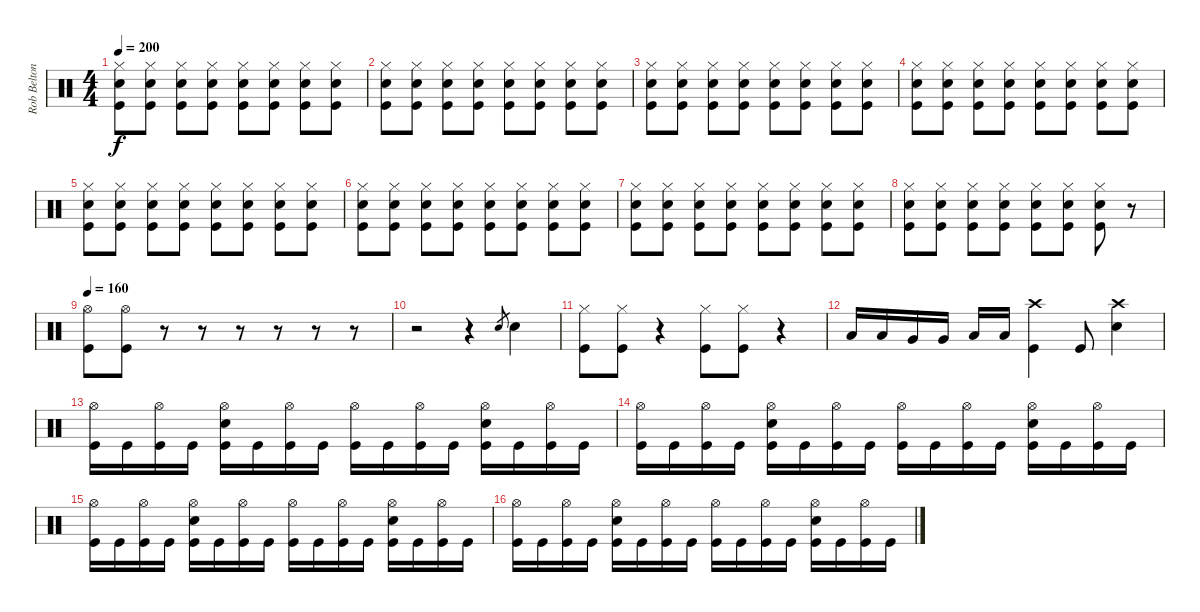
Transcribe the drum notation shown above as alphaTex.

\track ("Rob Belton" "Rob Belton") {instrument percussion}
\staff {score}
\articulation defaults
\ts (4 4)
\tempo 200
\clef neutral
\ks c
("Kick (hit)" "Snare (hit) 2" "Hi-Hat (closed)").8{dy f} ("Kick (hit)" "Snare (hit) 2" "Hi-Hat (closed)").8 ("Kick (hit)" "Snare (hit) 2" "Hi-Hat (closed)").8 ("Kick (hit)" "Snare (hit) 2" "Hi-Hat (closed)").8 ("Kick (hit)" "Snare (hit) 2" "Hi-Hat (closed)").8 ("Kick (hit)" "Snare (hit) 2" "Hi-Hat (closed)").8 ("Kick (hit)" "Snare (hit) 2" "Hi-Hat (closed)").8 ("Kick (hit)" "Snare (hit) 2" "Hi-Hat (closed)").8 |
("Kick (hit)" "Snare (hit) 2" "Hi-Hat (closed)").8 ("Kick (hit)" "Snare (hit) 2" "Hi-Hat (closed)").8 ("Kick (hit)" "Snare (hit) 2" "Hi-Hat (closed)").8 ("Kick (hit)" "Snare (hit) 2" "Hi-Hat (closed)").8 ("Kick (hit)" "Snare (hit) 2" "Hi-Hat (closed)").8 ("Kick (hit)" "Snare (hit) 2" "Hi-Hat (closed)").8 ("Kick (hit)" "Snare (hit) 2" "Hi-Hat (closed)").8 ("Kick (hit)" "Snare (hit) 2" "Hi-Hat (closed)").8 |
("Kick (hit)" "Snare (hit) 2" "Hi-Hat (closed)").8 ("Kick (hit)" "Snare (hit) 2" "Hi-Hat (closed)").8 ("Kick (hit)" "Snare (hit) 2" "Hi-Hat (closed)").8 ("Kick (hit)" "Snare (hit) 2" "Hi-Hat (closed)").8 ("Kick (hit)" "Snare (hit) 2" "Hi-Hat (closed)").8 ("Kick (hit)" "Snare (hit) 2" "Hi-Hat (closed)").8 ("Kick (hit)" "Snare (hit) 2" "Hi-Hat (closed)").8 ("Kick (hit)" "Snare (hit) 2" "Hi-Hat (closed)").8 |
("Kick (hit)" "Snare (hit) 2" "Hi-Hat (closed)").8 ("Kick (hit)" "Snare (hit) 2" "Hi-Hat (closed)").8 ("Kick (hit)" "Snare (hit) 2" "Hi-Hat (closed)").8 ("Kick (hit)" "Snare (hit) 2" "Hi-Hat (closed)").8 ("Kick (hit)" "Snare (hit) 2" "Hi-Hat (closed)").8 ("Kick (hit)" "Snare (hit) 2" "Hi-Hat (closed)").8 ("Kick (hit)" "Snare (hit) 2" "Hi-Hat (closed)").8 ("Kick (hit)" "Snare (hit) 2" "Hi-Hat (closed)").8 |
("Kick (hit)" "Snare (hit) 2" "Hi-Hat (closed)").8 ("Kick (hit)" "Snare (hit) 2" "Hi-Hat (closed)").8 ("Kick (hit)" "Snare (hit) 2" "Hi-Hat (closed)").8 ("Kick (hit)" "Snare (hit) 2" "Hi-Hat (closed)").8 ("Kick (hit)" "Snare (hit) 2" "Hi-Hat (closed)").8 ("Kick (hit)" "Snare (hit) 2" "Hi-Hat (closed)").8 ("Kick (hit)" "Snare (hit) 2" "Hi-Hat (closed)").8 ("Kick (hit)" "Snare (hit) 2" "Hi-Hat (closed)").8 |
("Kick (hit)" "Snare (hit) 2" "Hi-Hat (closed)").8 ("Kick (hit)" "Snare (hit) 2" "Hi-Hat (closed)").8 ("Kick (hit)" "Snare (hit) 2" "Hi-Hat (closed)").8 ("Kick (hit)" "Snare (hit) 2" "Hi-Hat (closed)").8 ("Kick (hit)" "Snare (hit) 2" "Hi-Hat (closed)").8 ("Kick (hit)" "Snare (hit) 2" "Hi-Hat (closed)").8 ("Kick (hit)" "Snare (hit) 2" "Hi-Hat (closed)").8 ("Kick (hit)" "Snare (hit) 2" "Hi-Hat (closed)").8 |
("Kick (hit)" "Snare (hit) 2" "Hi-Hat (closed)").8 ("Kick (hit)" "Snare (hit) 2" "Hi-Hat (closed)").8 ("Kick (hit)" "Snare (hit) 2" "Hi-Hat (closed)").8 ("Kick (hit)" "Snare (hit) 2" "Hi-Hat (closed)").8 ("Kick (hit)" "Snare (hit) 2" "Hi-Hat (closed)").8 ("Kick (hit)" "Snare (hit) 2" "Hi-Hat (closed)").8 ("Kick (hit)" "Snare (hit) 2" "Hi-Hat (closed)").8 ("Kick (hit)" "Snare (hit) 2" "Hi-Hat (closed)").8 |
("Kick (hit)" "Snare (hit) 2" "Hi-Hat (closed)").8 ("Kick (hit)" "Snare (hit) 2" "Hi-Hat (closed)").8 ("Kick (hit)" "Snare (hit) 2" "Hi-Hat (closed)").8 ("Kick (hit)" "Snare (hit) 2" "Hi-Hat (closed)").8 ("Kick (hit)" "Snare (hit) 2" "Hi-Hat (closed)").8 ("Kick (hit)" "Snare (hit) 2" "Hi-Hat (closed)").8 ("Kick (hit)" "Snare (hit) 2" "Hi-Hat (closed)").8 r.8 |
\tempo 160
("Kick (hit)" "Hi-Hat (open)").8 ("Kick (hit)" "Hi-Hat (open)").8 r.8 r.8 r.8 r.8 r.8 r.8 |
r.2 r.4 "Snare (hit)".8{gr} "Snare (hit) 2".4 |
("Kick (hit)" "Hi-Hat (closed)").8 ("Kick (hit)" "Hi-Hat (closed)").8 r.4 ("Kick (hit)" "Hi-Hat (closed)").8 ("Kick (hit)" "Hi-Hat (closed)").8 r.4 |
"Low Tom (hit)".16 "Low Tom (hit)".16 "Very Low Tom (hit)".16 "Very Low Tom (hit)".16 "Low Floor Tom (hit)".16 "Low Floor Tom (hit)".16 ("Kick (hit)" "Crash high (hit)").4 "Kick (hit)".8 ("Snare (hit) 2" "Crash high (hit)").4 |
("Kick (hit)" "Hi-Hat (open)").16 "Kick (hit)".16 ("Kick (hit)" "Hi-Hat (open)").16 "Kick (hit)".16 ("Kick (hit)" "Hi-Hat (open)" "Snare (hit) 2").16 "Kick (hit)".16 ("Kick (hit)" "Hi-Hat (open)").16 "Kick (hit)".16 ("Kick (hit)" "Hi-Hat (open)").16 "Kick (hit)".16 ("Kick (hit)" "Hi-Hat (open)").16 "Kick (hit)".16 ("Kick (hit)" "Hi-Hat (open)" "Snare (hit) 2").16 "Kick (hit)".16 ("Kick (hit)" "Hi-Hat (open)").16 "Kick (hit)".16 |
("Kick (hit)" "Hi-Hat (open)").16 "Kick (hit)".16 ("Kick (hit)" "Hi-Hat (open)").16 "Kick (hit)".16 ("Kick (hit)" "Hi-Hat (open)" "Snare (hit) 2").16 "Kick (hit)".16 ("Kick (hit)" "Hi-Hat (open)").16 "Kick (hit)".16 ("Kick (hit)" "Hi-Hat (open)").16 "Kick (hit)".16 ("Kick (hit)" "Hi-Hat (open)").16 "Kick (hit)".16 ("Kick (hit)" "Hi-Hat (open)" "Snare (hit) 2").16 "Kick (hit)".16 ("Kick (hit)" "Hi-Hat (open)").16 "Kick (hit)".16 |
("Kick (hit)" "Hi-Hat (open)").16 "Kick (hit)".16 ("Kick (hit)" "Hi-Hat (open)").16 "Kick (hit)".16 ("Kick (hit)" "Hi-Hat (open)" "Snare (hit) 2").16 "Kick (hit)".16 ("Kick (hit)" "Hi-Hat (open)").16 "Kick (hit)".16 ("Kick (hit)" "Hi-Hat (open)").16 "Kick (hit)".16 ("Kick (hit)" "Hi-Hat (open)").16 "Kick (hit)".16 ("Kick (hit)" "Hi-Hat (open)" "Snare (hit) 2").16 "Kick (hit)".16 ("Kick (hit)" "Hi-Hat (open)").16 "Kick (hit)".16 |
("Kick (hit)" "Hi-Hat (open)").16 "Kick (hit)".16 ("Kick (hit)" "Hi-Hat (open)").16 "Kick (hit)".16 ("Kick (hit)" "Hi-Hat (open)" "Snare (hit) 2").16 "Kick (hit)".16 ("Kick (hit)" "Hi-Hat (open)").16 "Kick (hit)".16 ("Kick (hit)" "Hi-Hat (open)").16 "Kick (hit)".16 ("Kick (hit)" "Hi-Hat (open)").16 "Kick (hit)".16 ("Kick (hit)" "Hi-Hat (open)" "Snare (hit) 2").16 "Kick (hit)".16 ("Kick (hit)" "Hi-Hat (open)").16 "Kick (hit)".16
